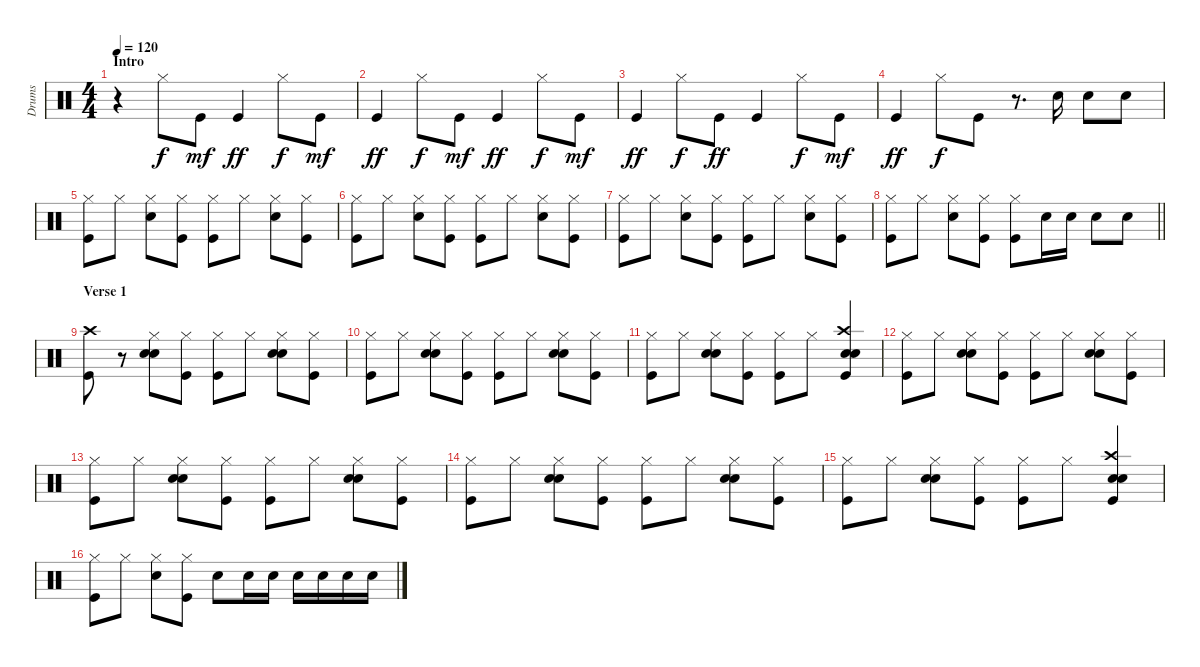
\track ("Drums" "Drums") {instrument percussion}
\staff {score}
\articulation defaults
\ts (4 4)
\section ("" "Intro")
\tempo 120
\clef neutral
\ks c
r.4{dy f} "Hi-Hat (closed)".8 "Kick (hit)".8{dy mf} "Kick (hit)".4{dy ff} "Hi-Hat (closed)".8{dy f} "Kick (hit)".8{dy mf} |
"Kick (hit)".4{dy ff} "Hi-Hat (closed)".8{dy f} "Kick (hit)".8{dy mf} "Kick (hit)".4{dy ff} "Hi-Hat (closed)".8{dy f} "Kick (hit)".8{dy mf} |
"Kick (hit)".4{dy ff} "Hi-Hat (closed)".8{dy f} "Kick (hit)".8{dy ff} "Kick (hit)".4 "Hi-Hat (closed)".8{dy f} "Kick (hit)".8{dy mf} |
"Kick (hit)".4{dy ff} "Hi-Hat (closed)".8{dy f} "Kick (hit)".8 r.8{d} "Snare (hit) 2".16 "Snare (hit) 2".8 "Snare (hit) 2".8 |
("Hi-Hat (closed)" "Kick (hit)").8 "Hi-Hat (closed)".8 ("Hi-Hat (closed)" "Snare (hit) 2").8 ("Hi-Hat (closed)" "Kick (hit)").8 ("Hi-Hat (closed)" "Kick (hit)").8 "Hi-Hat (closed)".8 ("Hi-Hat (closed)" "Snare (hit) 2").8 ("Hi-Hat (closed)" "Kick (hit)").8 |
("Hi-Hat (closed)" "Kick (hit)").8 "Hi-Hat (closed)".8 ("Hi-Hat (closed)" "Snare (hit) 2").8 ("Hi-Hat (closed)" "Kick (hit)").8 ("Hi-Hat (closed)" "Kick (hit)").8 "Hi-Hat (closed)".8 ("Hi-Hat (closed)" "Snare (hit) 2").8 ("Hi-Hat (closed)" "Kick (hit)").8 |
("Hi-Hat (closed)" "Kick (hit)").8 "Hi-Hat (closed)".8 ("Hi-Hat (closed)" "Snare (hit) 2").8 ("Hi-Hat (closed)" "Kick (hit)").8 ("Hi-Hat (closed)" "Kick (hit)").8 "Hi-Hat (closed)".8 ("Hi-Hat (closed)" "Snare (hit) 2").8 ("Hi-Hat (closed)" "Kick (hit)").8 |
\barLineRight lightlight
("Hi-Hat (closed)" "Kick (hit)").8 "Hi-Hat (closed)".8 ("Hi-Hat (closed)" "Snare (hit) 2").8 ("Hi-Hat (closed)" "Kick (hit)").8 ("Hi-Hat (closed)" "Kick (hit)").8 "Snare (hit) 2".16 "Snare (hit) 2".16 "Snare (hit) 2".8 "Snare (hit) 2".8 |
\section ("" "Verse 1")
("Crash high (hit)" "Kick (hit)").8 r.8 ("Hi-Hat (closed)" "Snare (hit) 2" "Hand Clap (hit)").8 ("Hi-Hat (closed)" "Kick (hit)").8 ("Hi-Hat (closed)" "Kick (hit)").8 "Hi-Hat (closed)".8 ("Hi-Hat (closed)" "Snare (hit) 2" "Hand Clap (hit)").8 ("Hi-Hat (closed)" "Kick (hit)").8 |
("Hi-Hat (closed)" "Kick (hit)").8 "Hi-Hat (closed)".8 ("Hi-Hat (closed)" "Snare (hit) 2" "Hand Clap (hit)").8 ("Hi-Hat (closed)" "Kick (hit)").8 ("Hi-Hat (closed)" "Kick (hit)").8 "Hi-Hat (closed)".8 ("Hi-Hat (closed)" "Snare (hit) 2" "Hand Clap (hit)").8 ("Hi-Hat (closed)" "Kick (hit)").8 |
("Hi-Hat (closed)" "Kick (hit)").8 "Hi-Hat (closed)".8 ("Hi-Hat (closed)" "Snare (hit) 2" "Hand Clap (hit)").8 ("Hi-Hat (closed)" "Kick (hit)").8 ("Hi-Hat (closed)" "Kick (hit)").8 "Hi-Hat (closed)".8 ("Crash high (hit)" "Snare (hit) 2" "Hand Clap (hit)" "Kick (hit)").4 |
("Hi-Hat (closed)" "Kick (hit)").8 "Hi-Hat (closed)".8 ("Hi-Hat (closed)" "Snare (hit) 2" "Hand Clap (hit)").8 ("Hi-Hat (closed)" "Kick (hit)").8 ("Hi-Hat (closed)" "Kick (hit)").8 "Hi-Hat (closed)".8 ("Hi-Hat (closed)" "Snare (hit) 2" "Hand Clap (hit)").8 ("Hi-Hat (closed)" "Kick (hit)").8 |
("Hi-Hat (closed)" "Kick (hit)").8 "Hi-Hat (closed)".8 ("Hi-Hat (closed)" "Snare (hit) 2" "Hand Clap (hit)").8 ("Hi-Hat (closed)" "Kick (hit)").8 ("Hi-Hat (closed)" "Kick (hit)").8 "Hi-Hat (closed)".8 ("Hi-Hat (closed)" "Snare (hit) 2" "Hand Clap (hit)").8 ("Hi-Hat (closed)" "Kick (hit)").8 |
("Hi-Hat (closed)" "Kick (hit)").8 "Hi-Hat (closed)".8 ("Hi-Hat (closed)" "Snare (hit) 2" "Hand Clap (hit)").8 ("Hi-Hat (closed)" "Kick (hit)").8 ("Hi-Hat (closed)" "Kick (hit)").8 "Hi-Hat (closed)".8 ("Hi-Hat (closed)" "Snare (hit) 2" "Hand Clap (hit)").8 ("Hi-Hat (closed)" "Kick (hit)").8 |
("Hi-Hat (closed)" "Kick (hit)").8 "Hi-Hat (closed)".8 ("Hi-Hat (closed)" "Snare (hit) 2" "Hand Clap (hit)").8 ("Hi-Hat (closed)" "Kick (hit)").8 ("Hi-Hat (closed)" "Kick (hit)").8 "Hi-Hat (closed)".8 ("Crash high (hit)" "Snare (hit) 2" "Hand Clap (hit)" "Kick (hit)").4 |
("Hi-Hat (closed)" "Kick (hit)").8 "Hi-Hat (closed)".8 ("Hi-Hat (closed)" "Snare (hit) 2").8 ("Hi-Hat (closed)" "Kick (hit)").8 "Snare (hit) 2".8 "Snare (hit) 2".16 "Snare (hit) 2".16 "Snare (hit) 2".16 "Snare (hit) 2".16 "Snare (hit) 2".16 "Snare (hit) 2".16
